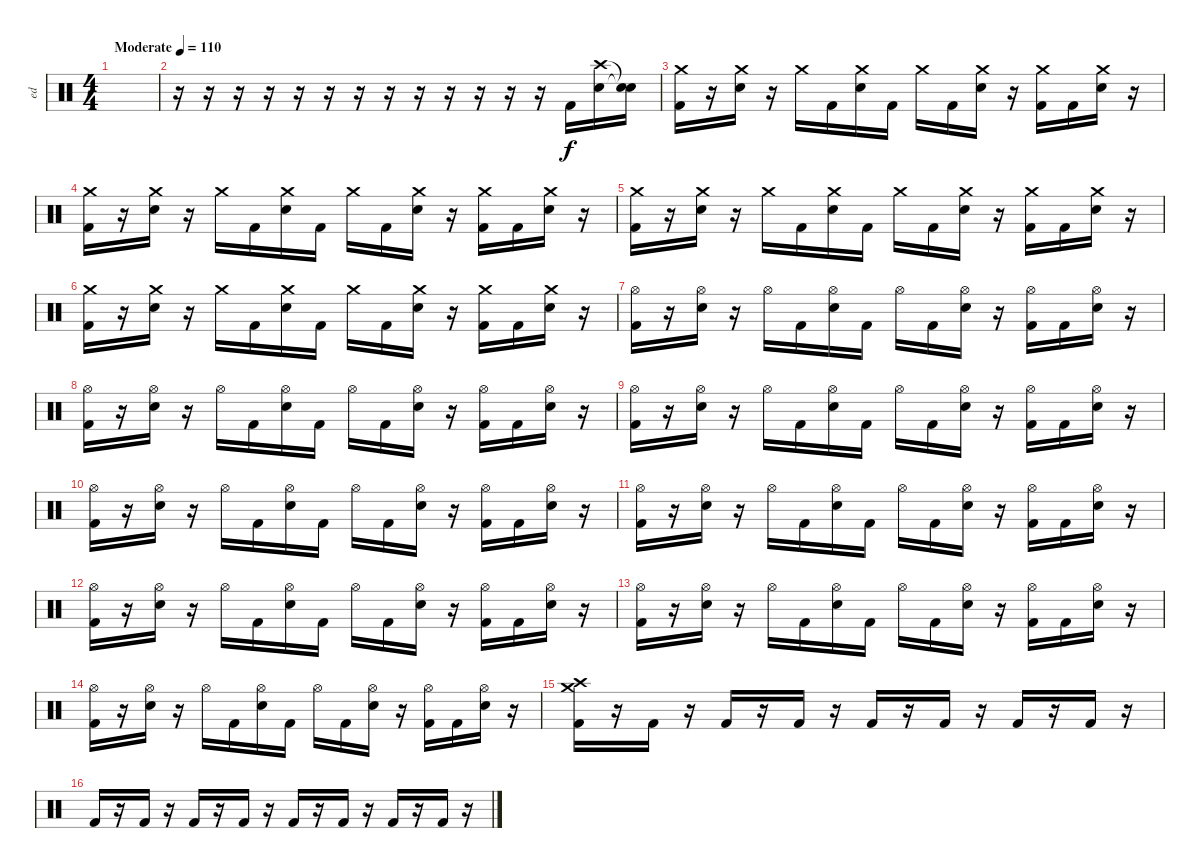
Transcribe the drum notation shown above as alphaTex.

\track ("ed" "ed") {instrument percussion}
\staff {score}
\articulation defaults
\ts (4 4)
\tempo (110 "Moderate")
\clef neutral
\ks c
|
r.16 r.16 r.16 r.16 r.16 r.16 r.16 r.16 r.16 r.16 r.16 r.16 r.16 "Kick (hit) 2".16 ("Crash high (hit)" "Electric Snare (hit)").16 ("Snare (hit)"{t} "Snare (hit)"{t}).16 |
("Crash medium (hit)" "Kick (hit) 2").16 r.16 ("Crash medium (hit)" "Electric Snare (hit)").16 r.16 "Crash medium (hit)".16 "Kick (hit) 2".16 ("Crash medium (hit)" "Electric Snare (hit)").16 "Kick (hit) 2".16 "Crash medium (hit)".16 "Kick (hit) 2".16 ("Crash medium (hit)" "Electric Snare (hit)").16 r.16 ("Crash medium (hit)" "Kick (hit) 2").16 "Kick (hit) 2".16 ("Crash medium (hit)" "Electric Snare (hit)").16 r.16 |
("Crash medium (hit)" "Kick (hit) 2").16 r.16 ("Crash medium (hit)" "Electric Snare (hit)").16 r.16 "Crash medium (hit)".16 "Kick (hit) 2".16 ("Crash medium (hit)" "Electric Snare (hit)").16 "Kick (hit) 2".16 "Crash medium (hit)".16 "Kick (hit) 2".16 ("Crash medium (hit)" "Electric Snare (hit)").16 r.16 ("Crash medium (hit)" "Kick (hit) 2").16 "Kick (hit) 2".16 ("Crash medium (hit)" "Electric Snare (hit)").16 r.16 |
("Crash medium (hit)" "Kick (hit) 2").16 r.16 ("Crash medium (hit)" "Electric Snare (hit)").16 r.16 "Crash medium (hit)".16 "Kick (hit) 2".16 ("Crash medium (hit)" "Electric Snare (hit)").16 "Kick (hit) 2".16 "Crash medium (hit)".16 "Kick (hit) 2".16 ("Crash medium (hit)" "Electric Snare (hit)").16 r.16 ("Crash medium (hit)" "Kick (hit) 2").16 "Kick (hit) 2".16 ("Crash medium (hit)" "Electric Snare (hit)").16 r.16 |
("Crash medium (hit)" "Kick (hit) 2").16 r.16 ("Crash medium (hit)" "Electric Snare (hit)").16 r.16 "Crash medium (hit)".16 "Kick (hit) 2".16 ("Crash medium (hit)" "Electric Snare (hit)").16 "Kick (hit) 2".16 "Crash medium (hit)".16 "Kick (hit) 2".16 ("Crash medium (hit)" "Electric Snare (hit)").16 r.16 ("Crash medium (hit)" "Kick (hit) 2").16 "Kick (hit) 2".16 ("Crash medium (hit)" "Electric Snare (hit)").16 r.16 |
("Hi-Hat (open)" "Kick (hit) 2").16 r.16 ("Hi-Hat (open)" "Electric Snare (hit)").16 r.16 "Hi-Hat (open)".16 "Kick (hit) 2".16 ("Hi-Hat (open)" "Electric Snare (hit)").16 "Kick (hit) 2".16 "Hi-Hat (open)".16 "Kick (hit) 2".16 ("Hi-Hat (open)" "Electric Snare (hit)").16 r.16 ("Hi-Hat (open)" "Kick (hit) 2").16 "Kick (hit) 2".16 ("Hi-Hat (open)" "Electric Snare (hit)").16 r.16 |
("Hi-Hat (open)" "Kick (hit) 2").16 r.16 ("Hi-Hat (open)" "Electric Snare (hit)").16 r.16 "Hi-Hat (open)".16 "Kick (hit) 2".16 ("Hi-Hat (open)" "Electric Snare (hit)").16 "Kick (hit) 2".16 "Hi-Hat (open)".16 "Kick (hit) 2".16 ("Hi-Hat (open)" "Electric Snare (hit)").16 r.16 ("Hi-Hat (open)" "Kick (hit) 2").16 "Kick (hit) 2".16 ("Hi-Hat (open)" "Electric Snare (hit)").16 r.16 |
("Hi-Hat (open)" "Kick (hit) 2").16 r.16 ("Hi-Hat (open)" "Electric Snare (hit)").16 r.16 "Hi-Hat (open)".16 "Kick (hit) 2".16 ("Hi-Hat (open)" "Electric Snare (hit)").16 "Kick (hit) 2".16 "Hi-Hat (open)".16 "Kick (hit) 2".16 ("Hi-Hat (open)" "Electric Snare (hit)").16 r.16 ("Hi-Hat (open)" "Kick (hit) 2").16 "Kick (hit) 2".16 ("Hi-Hat (open)" "Electric Snare (hit)").16 r.16 |
("Hi-Hat (open)" "Kick (hit) 2").16 r.16 ("Hi-Hat (open)" "Electric Snare (hit)").16 r.16 "Hi-Hat (open)".16 "Kick (hit) 2".16 ("Hi-Hat (open)" "Electric Snare (hit)").16 "Kick (hit) 2".16 "Hi-Hat (open)".16 "Kick (hit) 2".16 ("Hi-Hat (open)" "Electric Snare (hit)").16 r.16 ("Hi-Hat (open)" "Kick (hit) 2").16 "Kick (hit) 2".16 ("Hi-Hat (open)" "Electric Snare (hit)").16 r.16 |
("Hi-Hat (open)" "Kick (hit) 2").16 r.16 ("Hi-Hat (open)" "Electric Snare (hit)").16 r.16 "Hi-Hat (open)".16 "Kick (hit) 2".16 ("Hi-Hat (open)" "Electric Snare (hit)").16 "Kick (hit) 2".16 "Hi-Hat (open)".16 "Kick (hit) 2".16 ("Hi-Hat (open)" "Electric Snare (hit)").16 r.16 ("Hi-Hat (open)" "Kick (hit) 2").16 "Kick (hit) 2".16 ("Hi-Hat (open)" "Electric Snare (hit)").16 r.16 |
("Hi-Hat (open)" "Kick (hit) 2").16 r.16 ("Hi-Hat (open)" "Electric Snare (hit)").16 r.16 "Hi-Hat (open)".16 "Kick (hit) 2".16 ("Hi-Hat (open)" "Electric Snare (hit)").16 "Kick (hit) 2".16 "Hi-Hat (open)".16 "Kick (hit) 2".16 ("Hi-Hat (open)" "Electric Snare (hit)").16 r.16 ("Hi-Hat (open)" "Kick (hit) 2").16 "Kick (hit) 2".16 ("Hi-Hat (open)" "Electric Snare (hit)").16 r.16 |
("Hi-Hat (open)" "Kick (hit) 2").16 r.16 ("Hi-Hat (open)" "Electric Snare (hit)").16 r.16 "Hi-Hat (open)".16 "Kick (hit) 2".16 ("Hi-Hat (open)" "Electric Snare (hit)").16 "Kick (hit) 2".16 "Hi-Hat (open)".16 "Kick (hit) 2".16 ("Hi-Hat (open)" "Electric Snare (hit)").16 r.16 ("Hi-Hat (open)" "Kick (hit) 2").16 "Kick (hit) 2".16 ("Hi-Hat (open)" "Electric Snare (hit)").16 r.16 |
("Hi-Hat (open)" "Kick (hit) 2").16 r.16 ("Hi-Hat (open)" "Electric Snare (hit)").16 r.16 "Hi-Hat (open)".16 "Kick (hit) 2".16 ("Hi-Hat (open)" "Electric Snare (hit)").16 "Kick (hit) 2".16 "Hi-Hat (open)".16 "Kick (hit) 2".16 ("Hi-Hat (open)" "Electric Snare (hit)").16 r.16 ("Hi-Hat (open)" "Kick (hit) 2").16 "Kick (hit) 2".16 ("Hi-Hat (open)" "Electric Snare (hit)").16 r.16 |
("Crash high (hit)" "Crash medium (hit)" "Kick (hit) 2").16 r.16 "Kick (hit) 2".16 r.16 "Kick (hit) 2".16 r.16 "Kick (hit) 2".16 r.16 "Kick (hit) 2".16 r.16 "Kick (hit) 2".16 r.16 "Kick (hit) 2".16 r.16 "Kick (hit) 2".16 r.16 |
"Kick (hit) 2".16 r.16 "Kick (hit) 2".16 r.16 "Kick (hit) 2".16 r.16 "Kick (hit) 2".16 r.16 "Kick (hit) 2".16 r.16 "Kick (hit) 2".16 r.16 "Kick (hit) 2".16 r.16 "Kick (hit) 2".16 r.16
